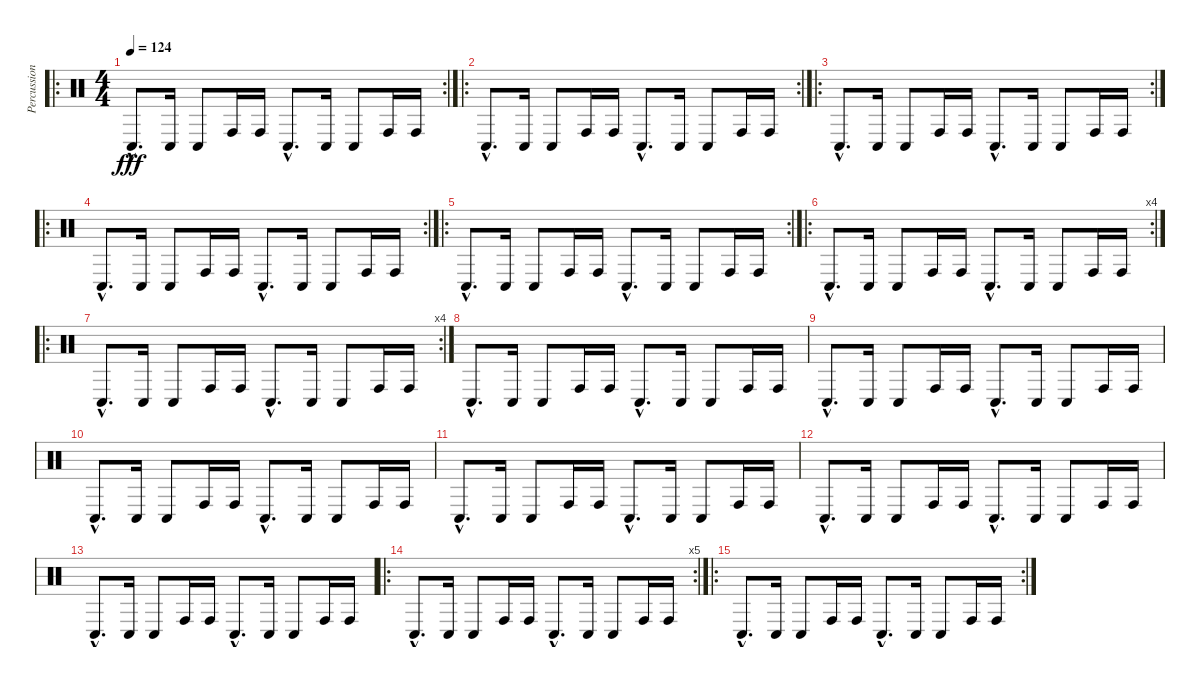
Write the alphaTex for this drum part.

\track ("Percussion" "Percussion") {instrument percussion}
\staff {score}
\articulation defaults
\ro
\rc 2
\ts (4 4)
\tempo 124
\clef neutral
\ks c "Conga low (hit)"{hac}.8{d dy fff} "Conga low (hit)".16 "Conga low (hit)".8 "Conga high (hit)".16 "Conga high (hit)".16 "Conga low (hit)"{hac}.8{d} "Conga low (hit)".16 "Conga low (hit)".8 "Conga high (hit)".16 "Conga high (hit)".16
|
\ro
\rc 2 "Conga low (hit)"{hac}.8{d} "Conga low (hit)".16 "Conga low (hit)".8 "Conga high (hit)".16 "Conga high (hit)".16 "Conga low (hit)"{hac}.8{d} "Conga low (hit)".16 "Conga low (hit)".8 "Conga high (hit)".16 "Conga high (hit)".16
|
\ro
\rc 2 "Conga low (hit)"{hac}.8{d} "Conga low (hit)".16 "Conga low (hit)".8 "Conga high (hit)".16 "Conga high (hit)".16 "Conga low (hit)"{hac}.8{d} "Conga low (hit)".16 "Conga low (hit)".8 "Conga high (hit)".16 "Conga high (hit)".16
|
\ro
\rc 2 "Conga low (hit)"{hac}.8{d} "Conga low (hit)".16 "Conga low (hit)".8 "Conga high (hit)".16 "Conga high (hit)".16 "Conga low (hit)"{hac}.8{d} "Conga low (hit)".16 "Conga low (hit)".8 "Conga high (hit)".16 "Conga high (hit)".16
|
\ro
\rc 2 "Conga low (hit)"{hac}.8{d} "Conga low (hit)".16 "Conga low (hit)".8 "Conga high (hit)".16 "Conga high (hit)".16 "Conga low (hit)"{hac}.8{d} "Conga low (hit)".16 "Conga low (hit)".8 "Conga high (hit)".16 "Conga high (hit)".16
|
\ro
\rc 4 "Conga low (hit)"{hac}.8{d} "Conga low (hit)".16 "Conga low (hit)".8 "Conga high (hit)".16 "Conga high (hit)".16 "Conga low (hit)"{hac}.8{d} "Conga low (hit)".16 "Conga low (hit)".8 "Conga high (hit)".16 "Conga high (hit)".16
|
\ro
\rc 4 "Conga low (hit)"{hac}.8{d} "Conga low (hit)".16 "Conga low (hit)".8 "Conga high (hit)".16 "Conga high (hit)".16 "Conga low (hit)"{hac}.8{d} "Conga low (hit)".16 "Conga low (hit)".8 "Conga high (hit)".16 "Conga high (hit)".16
|
"Conga low (hit)"{hac}.8{d} "Conga low (hit)".16 "Conga low (hit)".8 "Conga high (hit)".16 "Conga high (hit)".16 "Conga low (hit)"{hac}.8{d} "Conga low (hit)".16 "Conga low (hit)".8 "Conga high (hit)".16 "Conga high (hit)".16 |
"Conga low (hit)"{hac}.8{d} "Conga low (hit)".16 "Conga low (hit)".8 "Conga high (hit)".16 "Conga high (hit)".16 "Conga low (hit)"{hac}.8{d} "Conga low (hit)".16 "Conga low (hit)".8 "Conga high (hit)".16 "Conga high (hit)".16 |
"Conga low (hit)"{hac}.8{d} "Conga low (hit)".16 "Conga low (hit)".8 "Conga high (hit)".16 "Conga high (hit)".16 "Conga low (hit)"{hac}.8{d} "Conga low (hit)".16 "Conga low (hit)".8 "Conga high (hit)".16 "Conga high (hit)".16 |
"Conga low (hit)"{hac}.8{d} "Conga low (hit)".16 "Conga low (hit)".8 "Conga high (hit)".16 "Conga high (hit)".16 "Conga low (hit)"{hac}.8{d} "Conga low (hit)".16 "Conga low (hit)".8 "Conga high (hit)".16 "Conga high (hit)".16 |
"Conga low (hit)"{hac}.8{d} "Conga low (hit)".16 "Conga low (hit)".8 "Conga high (hit)".16 "Conga high (hit)".16 "Conga low (hit)"{hac}.8{d} "Conga low (hit)".16 "Conga low (hit)".8 "Conga high (hit)".16 "Conga high (hit)".16 |
"Conga low (hit)"{hac}.8{d} "Conga low (hit)".16 "Conga low (hit)".8 "Conga high (hit)".16 "Conga high (hit)".16 "Conga low (hit)"{hac}.8{d} "Conga low (hit)".16 "Conga low (hit)".8 "Conga high (hit)".16 "Conga high (hit)".16 |
\ro
\rc 5 "Conga low (hit)"{hac}.8{d} "Conga low (hit)".16 "Conga low (hit)".8 "Conga high (hit)".16 "Conga high (hit)".16 "Conga low (hit)"{hac}.8{d} "Conga low (hit)".16 "Conga low (hit)".8 "Conga high (hit)".16 "Conga high (hit)".16
|
\ro
\rc 2 "Conga low (hit)"{hac}.8{d} "Conga low (hit)".16 "Conga low (hit)".8 "Conga high (hit)".16 "Conga high (hit)".16 "Conga low (hit)"{hac}.8{d} "Conga low (hit)".16 "Conga low (hit)".8 "Conga high (hit)".16 "Conga high (hit)".16{volume 0}
